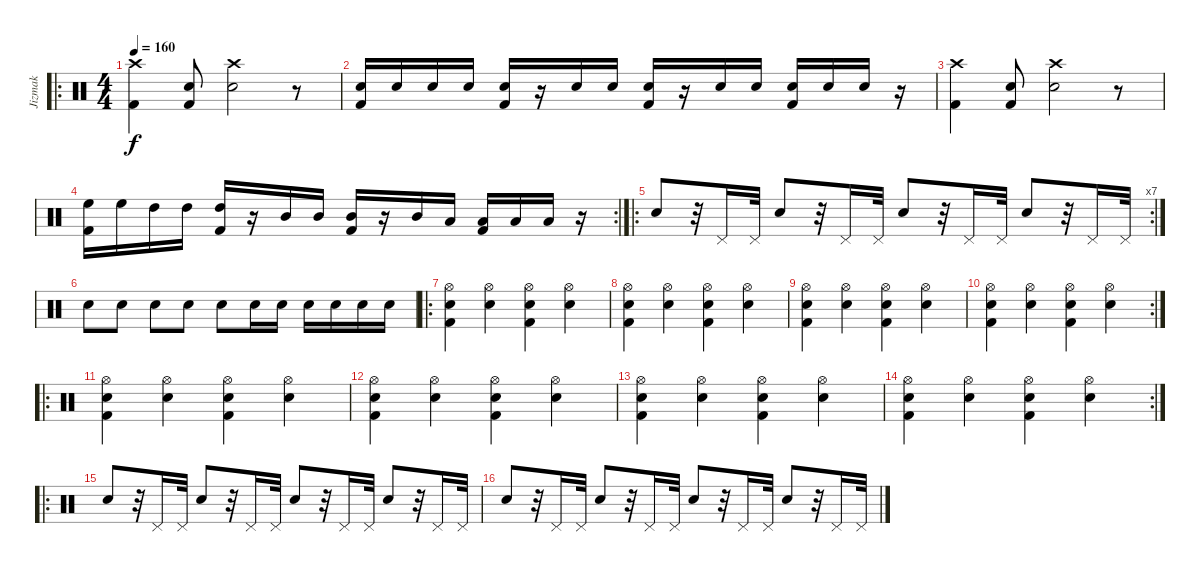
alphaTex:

\track ("Jizmak" "Jizmak") {instrument percussion}
\staff {score}
\articulation defaults
\ro
\ts (4 4)
\tempo 160
\clef neutral
\ks c
("Crash high (hit)" "Kick (hit) 2").4{dy f} ("Electric Snare (hit)" "Kick (hit) 2").8 ("Crash high (hit)" "Snare (hit) 2").2 r.8 |
("Snare (hit) 2" "Kick (hit) 2").16 "Electric Snare (hit)".16 "Snare (hit) 2".16 "Electric Snare (hit)".16 ("Snare (hit) 2" "Kick (hit) 2").16 r.16 "Snare (hit) 2".16 "Electric Snare (hit)".16 ("Snare (hit) 2" "Kick (hit) 2").16 r.16 "Snare (hit) 2".16 "Electric Snare (hit)".16 ("Snare (hit) 2" "Kick (hit) 2").16 "Electric Snare (hit)".16 "Snare (hit) 2".16 r.16 |
("Crash high (hit)" "Kick (hit) 2").4 ("Electric Snare (hit)" "Kick (hit) 2").8 ("Crash high (hit)" "Snare (hit) 2").2 r.8 |
\rc 2
("High Floor Tom (hit)" "Kick (hit) 2").16 "High Floor Tom (hit)".16 "High Tom (hit)".16 "High Tom (hit)".16 ("High Tom (hit)" "Kick (hit) 2").16 r.16 "Mid Tom (hit)".16 "Mid Tom (hit)".16 ("Mid Tom (hit)" "Kick (hit) 2").16 r.16 "Mid Tom (hit)".16 "Low Tom (hit)".16 ("Low Tom (hit)" "Kick (hit) 2").16 "Low Tom (hit)".16 "Low Tom (hit)".16 r.16 |
\ro
\rc 7 "Snare (hit) 2".8
r.32 "Pedal Hi-Hat (hit)".16 "Pedal Hi-Hat (hit)".32 "Snare (hit) 2".8 r.32 "Pedal Hi-Hat (hit)".16 "Pedal Hi-Hat (hit)".32 "Snare (hit) 2".8 r.32 "Pedal Hi-Hat (hit)".16 "Pedal Hi-Hat (hit)".32 "Snare (hit) 2".8 r.32 "Pedal Hi-Hat (hit)".16 "Pedal Hi-Hat (hit)".32 |
"Electric Snare (hit)".8 "Electric Snare (hit)".8 "Electric Snare (hit)".8 "Electric Snare (hit)".8 "Electric Snare (hit)".8 "Electric Snare (hit)".16 "Electric Snare (hit)".16 "Electric Snare (hit)".16 "Electric Snare (hit)".16 "Electric Snare (hit)".16 "Electric Snare (hit)".16 |
\ro
("Hi-Hat (open)" "Snare (hit) 2" "Kick (hit) 2").4 ("Hi-Hat (open)" "Snare (hit) 2").4 ("Hi-Hat (open)" "Snare (hit) 2" "Kick (hit) 2").4 ("Hi-Hat (open)" "Snare (hit) 2").4 |
("Hi-Hat (open)" "Snare (hit) 2" "Kick (hit) 2").4 ("Hi-Hat (open)" "Snare (hit) 2").4 ("Hi-Hat (open)" "Snare (hit) 2" "Kick (hit) 2").4 ("Hi-Hat (open)" "Snare (hit) 2").4 |
("Hi-Hat (open)" "Snare (hit) 2" "Kick (hit) 2").4 ("Hi-Hat (open)" "Snare (hit) 2").4 ("Hi-Hat (open)" "Snare (hit) 2" "Kick (hit) 2").4 ("Hi-Hat (open)" "Snare (hit) 2").4 |
\rc 2
("Hi-Hat (open)" "Snare (hit) 2" "Kick (hit) 2").4 ("Hi-Hat (open)" "Snare (hit) 2").4 ("Hi-Hat (open)" "Snare (hit) 2" "Kick (hit) 2").4 ("Hi-Hat (open)" "Snare (hit) 2").4 |
\ro
("Hi-Hat (open)" "Snare (hit) 2" "Kick (hit) 2").4 ("Hi-Hat (open)" "Snare (hit) 2").4 ("Hi-Hat (open)" "Snare (hit) 2" "Kick (hit) 2").4 ("Hi-Hat (open)" "Snare (hit) 2").4 |
("Hi-Hat (open)" "Snare (hit) 2" "Kick (hit) 2").4 ("Hi-Hat (open)" "Snare (hit) 2").4 ("Hi-Hat (open)" "Snare (hit) 2" "Kick (hit) 2").4 ("Hi-Hat (open)" "Snare (hit) 2").4 |
("Hi-Hat (open)" "Snare (hit) 2" "Kick (hit) 2").4 ("Hi-Hat (open)" "Snare (hit) 2").4 ("Hi-Hat (open)" "Snare (hit) 2" "Kick (hit) 2").4 ("Hi-Hat (open)" "Snare (hit) 2").4 |
\rc 2
("Hi-Hat (open)" "Snare (hit) 2" "Kick (hit) 2").4 ("Hi-Hat (open)" "Snare (hit) 2").4 ("Hi-Hat (open)" "Snare (hit) 2" "Kick (hit) 2").4 ("Hi-Hat (open)" "Snare (hit) 2").4 |
\ro "Snare (hit) 2".8
r.32 "Pedal Hi-Hat (hit)".16 "Pedal Hi-Hat (hit)".32 "Snare (hit) 2".8 r.32 "Pedal Hi-Hat (hit)".16 "Pedal Hi-Hat (hit)".32 "Snare (hit) 2".8 r.32 "Pedal Hi-Hat (hit)".16 "Pedal Hi-Hat (hit)".32 "Snare (hit) 2".8 r.32 "Pedal Hi-Hat (hit)".16 "Pedal Hi-Hat (hit)".32 |
"Snare (hit) 2".8 r.32 "Pedal Hi-Hat (hit)".16 "Pedal Hi-Hat (hit)".32 "Snare (hit) 2".8 r.32 "Pedal Hi-Hat (hit)".16 "Pedal Hi-Hat (hit)".32 "Snare (hit) 2".8 r.32 "Pedal Hi-Hat (hit)".16 "Pedal Hi-Hat (hit)".32 "Snare (hit) 2".8 r.32 "Pedal Hi-Hat (hit)".16 "Pedal Hi-Hat (hit)".32
